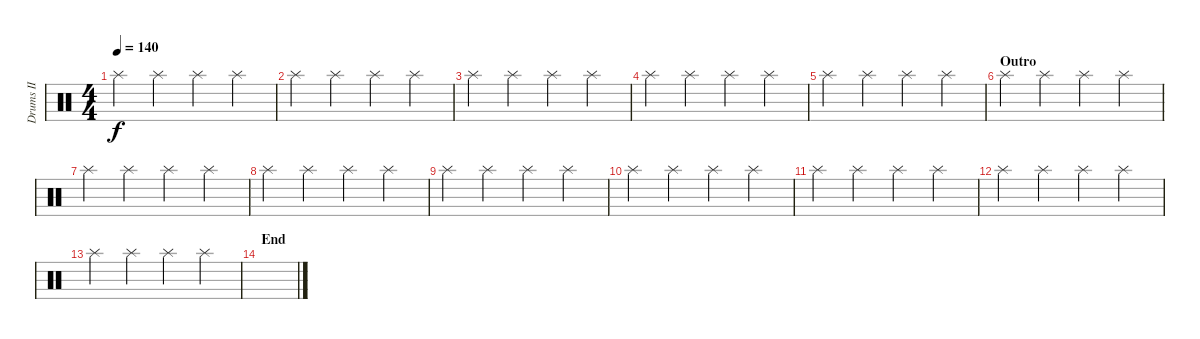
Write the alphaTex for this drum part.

\track ("Drums II" "Drums II") {instrument percussion}
\staff {score}
\articulation defaults
\ts (4 4)
\tempo 140
\clef neutral
\ks c "Splash (hit)".4{dy f} "Splash (hit)".4 "Splash (hit)".4 "Splash (hit)".4
|
"Splash (hit)".4 "Splash (hit)".4 "Splash (hit)".4 "Splash (hit)".4 |
"Splash (hit)".4 "Splash (hit)".4 "Splash (hit)".4 "Splash (hit)".4 |
"Splash (hit)".4 "Splash (hit)".4 "Splash (hit)".4 "Splash (hit)".4 |
"Splash (hit)".4 "Splash (hit)".4 "Splash (hit)".4 "Splash (hit)".4 |
\section ("" "Outro")
"Splash (hit)".4 "Splash (hit)".4 "Splash (hit)".4 "Splash (hit)".4 |
"Splash (hit)".4 "Splash (hit)".4 "Splash (hit)".4 "Splash (hit)".4 |
"Splash (hit)".4 "Splash (hit)".4 "Splash (hit)".4 "Splash (hit)".4 |
"Splash (hit)".4 "Splash (hit)".4 "Splash (hit)".4 "Splash (hit)".4 |
"Splash (hit)".4 "Splash (hit)".4 "Splash (hit)".4 "Splash (hit)".4 |
"Splash (hit)".4 "Splash (hit)".4 "Splash (hit)".4 "Splash (hit)".4 |
"Splash (hit)".4 "Splash (hit)".4 "Splash (hit)".4 "Splash (hit)".4 |
"Splash (hit)".4 "Splash (hit)".4 "Splash (hit)".4 "Splash (hit)".4 |
\section ("" "End")
